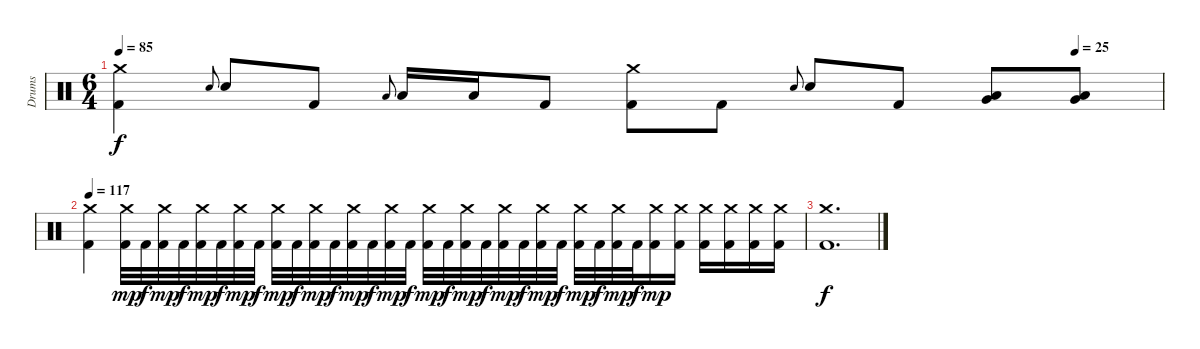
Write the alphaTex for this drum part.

\track ("Drums" "Drums") {instrument percussion}
\staff {score}
\articulation defaults
\ts (6 4)
\tempo 85
\tempo (25 0.9166666666666666)
\clef neutral
\ks c
("Crash medium (hit)" "Kick (hit) 2").4{dy f} "Electric Snare (hit)".8{gr onbeat} "Electric Snare (hit)".8 "Kick (hit) 2".8 "Low Tom (hit)".8{gr onbeat} "Low Tom (hit)".16 "Low Tom (hit)".16 "Kick (hit) 2".8 ("Crash medium (hit)" "Kick (hit) 2").8 "Kick (hit) 2".8 "Electric Snare (hit)".8{gr onbeat} "Electric Snare (hit)".8 "Kick (hit) 2".8 ("Very Low Tom (hit)" "Low Floor Tom (hit)").8 ("Very Low Tom (hit)" "Low Floor Tom (hit)").8 |
\tempo 117
("Crash medium (hit)" "Kick (hit) 2").4 ("Kick (hit) 2" "Crash medium (hit)").32{dy mp} "Kick (hit) 2".32{dy f} ("Kick (hit) 2" "Crash medium (hit)").32{dy mp} "Kick (hit) 2".32{dy f} ("Kick (hit) 2" "Crash medium (hit)").32{dy mp} "Kick (hit) 2".32{dy f} ("Kick (hit) 2" "Crash medium (hit)").32{dy mp} "Kick (hit) 2".32{dy f} ("Kick (hit) 2" "Crash medium (hit)").32{dy mp} "Kick (hit) 2".32{dy f} ("Kick (hit) 2" "Crash medium (hit)").32{dy mp} "Kick (hit) 2".32{dy f} ("Kick (hit) 2" "Crash medium (hit)").32{dy mp} "Kick (hit) 2".32{dy f} ("Kick (hit) 2" "Crash medium (hit)").32{dy mp} "Kick (hit) 2".32{dy f} ("Kick (hit) 2" "Crash medium (hit)").32{dy mp} "Kick (hit) 2".32{dy f} ("Kick (hit) 2" "Crash medium (hit)").32{dy mp} "Kick (hit) 2".32{dy f} ("Kick (hit) 2" "Crash medium (hit)").32{dy mp} "Kick (hit) 2".32{dy f} ("Kick (hit) 2" "Crash medium (hit)").32{dy mp} "Kick (hit) 2".32{dy f} ("Kick (hit) 2" "Crash medium (hit)").32{dy mp} "Kick (hit) 2".32{dy f} ("Kick (hit) 2" "Crash medium (hit)").32{dy mp} "Kick (hit) 2".32{dy f} ("Kick (hit) 2" "Crash medium (hit)").16{dy mp} ("Kick (hit) 2" "Crash medium (hit)").16 ("Kick (hit) 2" "Crash medium (hit)").16 ("Kick (hit) 2" "Crash medium (hit)").16 ("Kick (hit) 2" "Crash medium (hit)").16 ("Kick (hit) 2" "Crash medium (hit)").16 |
("Kick (hit) 2" "Crash medium (hit)").1{d dy f}
